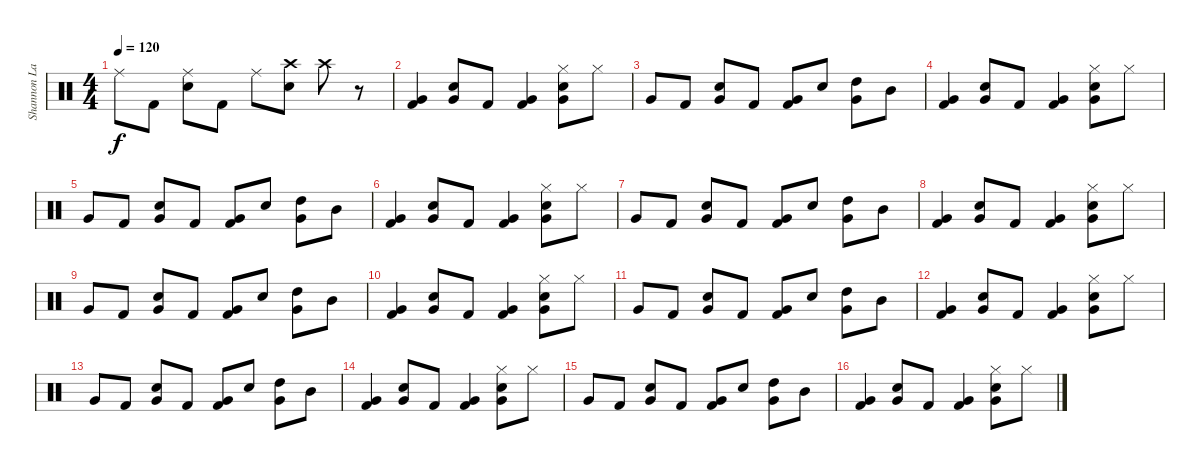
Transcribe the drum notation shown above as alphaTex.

\track ("Shannon Larkin [Drums]" "Shannon La") {instrument percussion}
\staff {score}
\articulation defaults
\ts (4 4)
\tempo 120
\clef neutral
\ks c "Ride (middle)".8{dy f} "Kick (hit) 2".8
("Ride (middle)" "Electric Snare (hit)").8 "Kick (hit) 2".8 "Ride (middle)".8 ("Crash high (hit)" "Electric Snare (hit)").8 "Crash high (hit)".8 r.8 |
("Very Low Tom (hit)" "Kick (hit) 2").4 ("Very Low Tom (hit)" "Electric Snare (hit)").8 "Kick (hit) 2".8 ("Very Low Tom (hit)" "Kick (hit) 2").4 ("Hi-Hat (closed)" "Very Low Tom (hit)" "Electric Snare (hit)").8 "Hi-Hat (closed)".8 |
"Very Low Tom (hit)".8 "Kick (hit) 2".8 ("Very Low Tom (hit)" "Electric Snare (hit)").8 "Kick (hit) 2".8 ("Very Low Tom (hit)" "Kick (hit) 2").8 "Electric Snare (hit)".8 ("Very Low Tom (hit)" "High Tom (hit)").8 "Mid Tom (hit)".8 |
("Very Low Tom (hit)" "Kick (hit) 2").4 ("Very Low Tom (hit)" "Electric Snare (hit)").8 "Kick (hit) 2".8 ("Very Low Tom (hit)" "Kick (hit) 2").4 ("Hi-Hat (closed)" "Very Low Tom (hit)" "Electric Snare (hit)").8 "Hi-Hat (closed)".8 |
"Very Low Tom (hit)".8 "Kick (hit) 2".8 ("Very Low Tom (hit)" "Electric Snare (hit)").8 "Kick (hit) 2".8 ("Very Low Tom (hit)" "Kick (hit) 2").8 "Electric Snare (hit)".8 ("Very Low Tom (hit)" "High Tom (hit)").8 "Mid Tom (hit)".8 |
("Very Low Tom (hit)" "Kick (hit) 2").4 ("Very Low Tom (hit)" "Electric Snare (hit)").8 "Kick (hit) 2".8 ("Very Low Tom (hit)" "Kick (hit) 2").4 ("Hi-Hat (closed)" "Very Low Tom (hit)" "Electric Snare (hit)").8 "Hi-Hat (closed)".8 |
"Very Low Tom (hit)".8 "Kick (hit) 2".8 ("Very Low Tom (hit)" "Electric Snare (hit)").8 "Kick (hit) 2".8 ("Very Low Tom (hit)" "Kick (hit) 2").8 "Electric Snare (hit)".8 ("Very Low Tom (hit)" "High Tom (hit)").8 "Mid Tom (hit)".8 |
("Very Low Tom (hit)" "Kick (hit) 2").4 ("Very Low Tom (hit)" "Electric Snare (hit)").8 "Kick (hit) 2".8 ("Very Low Tom (hit)" "Kick (hit) 2").4 ("Hi-Hat (closed)" "Very Low Tom (hit)" "Electric Snare (hit)").8 "Hi-Hat (closed)".8 |
"Very Low Tom (hit)".8 "Kick (hit) 2".8 ("Very Low Tom (hit)" "Electric Snare (hit)").8 "Kick (hit) 2".8 ("Very Low Tom (hit)" "Kick (hit) 2").8 "Electric Snare (hit)".8 ("Very Low Tom (hit)" "High Tom (hit)").8 "Mid Tom (hit)".8 |
("Very Low Tom (hit)" "Kick (hit) 2").4 ("Very Low Tom (hit)" "Electric Snare (hit)").8 "Kick (hit) 2".8 ("Very Low Tom (hit)" "Kick (hit) 2").4 ("Hi-Hat (closed)" "Very Low Tom (hit)" "Electric Snare (hit)").8 "Hi-Hat (closed)".8 |
"Very Low Tom (hit)".8 "Kick (hit) 2".8 ("Very Low Tom (hit)" "Electric Snare (hit)").8 "Kick (hit) 2".8 ("Very Low Tom (hit)" "Kick (hit) 2").8 "Electric Snare (hit)".8 ("Very Low Tom (hit)" "High Tom (hit)").8 "Mid Tom (hit)".8 |
("Very Low Tom (hit)" "Kick (hit) 2").4 ("Very Low Tom (hit)" "Electric Snare (hit)").8 "Kick (hit) 2".8 ("Very Low Tom (hit)" "Kick (hit) 2").4 ("Hi-Hat (closed)" "Very Low Tom (hit)" "Electric Snare (hit)").8 "Hi-Hat (closed)".8 |
"Very Low Tom (hit)".8 "Kick (hit) 2".8 ("Very Low Tom (hit)" "Electric Snare (hit)").8 "Kick (hit) 2".8 ("Very Low Tom (hit)" "Kick (hit) 2").8 "Electric Snare (hit)".8 ("Very Low Tom (hit)" "High Tom (hit)").8 "Mid Tom (hit)".8 |
("Very Low Tom (hit)" "Kick (hit) 2").4 ("Very Low Tom (hit)" "Electric Snare (hit)").8 "Kick (hit) 2".8 ("Very Low Tom (hit)" "Kick (hit) 2").4 ("Hi-Hat (closed)" "Very Low Tom (hit)" "Electric Snare (hit)").8 "Hi-Hat (closed)".8 |
"Very Low Tom (hit)".8 "Kick (hit) 2".8 ("Very Low Tom (hit)" "Electric Snare (hit)").8 "Kick (hit) 2".8 ("Very Low Tom (hit)" "Kick (hit) 2").8 "Electric Snare (hit)".8 ("Very Low Tom (hit)" "High Tom (hit)").8 "Mid Tom (hit)".8 |
("Very Low Tom (hit)" "Kick (hit) 2").4 ("Very Low Tom (hit)" "Electric Snare (hit)").8 "Kick (hit) 2".8 ("Very Low Tom (hit)" "Kick (hit) 2").4 ("Hi-Hat (closed)" "Very Low Tom (hit)" "Electric Snare (hit)").8 "Hi-Hat (closed)".8
